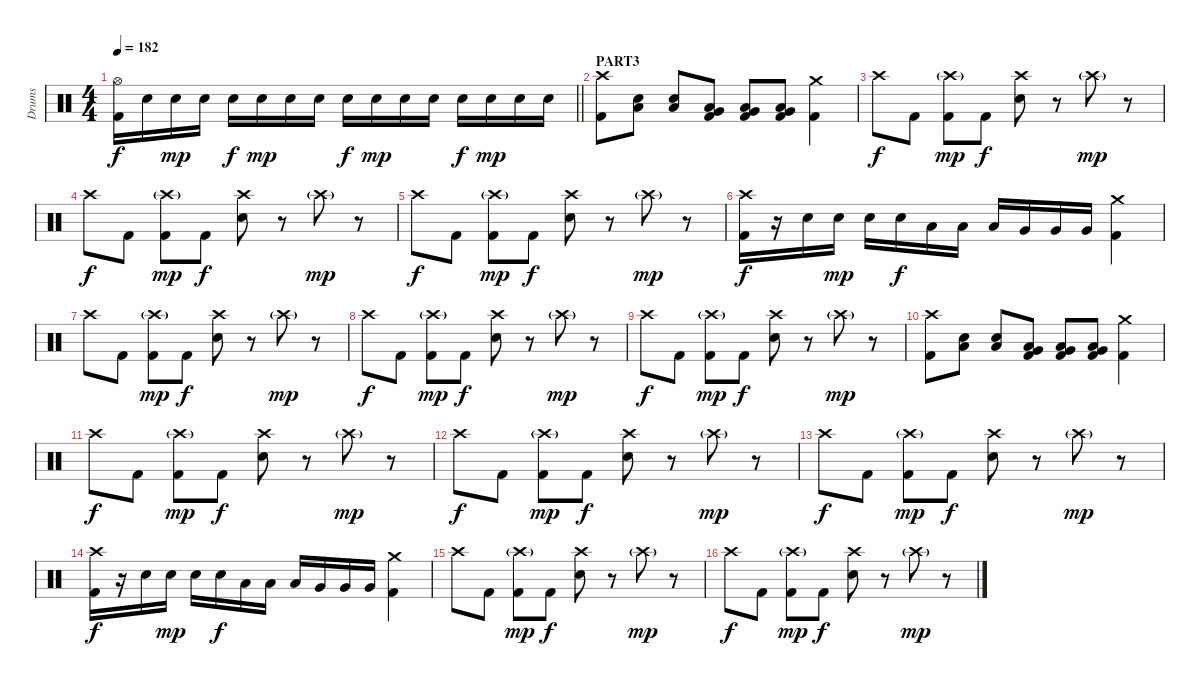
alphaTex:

\track ("Drums" "Drums") {instrument percussion}
\staff {score}
\articulation defaults
\ts (4 4)
\tempo 182
\clef neutral
\barLineRight lightlight
\ks c
("Kick (hit) 2" "Hi-Hat (open)").16{dy f} "Electric Snare (hit)".16 "Electric Snare (hit)".16{dy mp} "Electric Snare (hit)".16 "Electric Snare (hit)".16{dy f} "Electric Snare (hit)".16{dy mp} "Electric Snare (hit)".16 "Electric Snare (hit)".16 "Electric Snare (hit)".16{dy f} "Electric Snare (hit)".16{dy mp} "Electric Snare (hit)".16 "Electric Snare (hit)".16 "Electric Snare (hit)".16{dy f} "Electric Snare (hit)".16{dy mp} "Electric Snare (hit)".16 "Electric Snare (hit)".16 |
\section ("" "PART3")
("Kick (hit) 2" "Crash high (hit)").8 ("Electric Snare (hit)" "Low Floor Tom (hit)").8 ("Electric Snare (hit)" "Low Floor Tom (hit)").8 ("Kick (hit) 2" "Low Floor Tom (hit)" "Very Low Tom (hit)").8 ("Kick (hit) 2" "Low Floor Tom (hit)" "Very Low Tom (hit)").8 ("Kick (hit) 2" "Low Floor Tom (hit)" "Very Low Tom (hit)").8 ("Kick (hit) 2" "Crash medium (hit)").4 |
"Crash high (hit)".8{dy f} "Kick (hit) 2".8 ("Kick (hit) 2" "Crash high (hit)"{g}).8{dy mp} "Kick (hit) 2".8{dy f} ("Crash high (hit)" "Electric Snare (hit)").8 r.8 "Crash high (hit)"{g}.8{dy mp} r.8 |
"Crash high (hit)".8{dy f} "Kick (hit) 2".8 ("Kick (hit) 2" "Crash high (hit)"{g}).8{dy mp} "Kick (hit) 2".8{dy f} ("Crash high (hit)" "Electric Snare (hit)").8 r.8 "Crash high (hit)"{g}.8{dy mp} r.8 |
"Crash high (hit)".8{dy f} "Kick (hit) 2".8 ("Kick (hit) 2" "Crash high (hit)"{g}).8{dy mp} "Kick (hit) 2".8{dy f} ("Crash high (hit)" "Electric Snare (hit)").8 r.8 "Crash high (hit)"{g}.8{dy mp} r.8 |
("Kick (hit) 2" "Crash high (hit)").16{dy f} r.16 "Electric Snare (hit)".16 "Electric Snare (hit)".16{dy mp} "Electric Snare (hit)".16 "Electric Snare (hit)".16{dy f} "Low Tom (hit)".16 "Low Tom (hit)".16 "Low Tom (hit)".16 "Very Low Tom (hit)".16 "Very Low Tom (hit)".16 "Very Low Tom (hit)".16 ("Kick (hit) 2" "Crash medium (hit)").4 |
"Crash high (hit)".8 "Kick (hit) 2".8 ("Kick (hit) 2" "Crash high (hit)"{g}).8{dy mp} "Kick (hit) 2".8{dy f} ("Crash high (hit)" "Electric Snare (hit)").8 r.8 "Crash high (hit)"{g}.8{dy mp} r.8 |
"Crash high (hit)".8{dy f} "Kick (hit) 2".8 ("Kick (hit) 2" "Crash high (hit)"{g}).8{dy mp} "Kick (hit) 2".8{dy f} ("Crash high (hit)" "Electric Snare (hit)").8 r.8 "Crash high (hit)"{g}.8{dy mp} r.8 |
"Crash high (hit)".8{dy f} "Kick (hit) 2".8 ("Kick (hit) 2" "Crash high (hit)"{g}).8{dy mp} "Kick (hit) 2".8{dy f} ("Crash high (hit)" "Electric Snare (hit)").8 r.8 "Crash high (hit)"{g}.8{dy mp} r.8 |
("Kick (hit) 2" "Crash high (hit)").8 ("Electric Snare (hit)" "Low Floor Tom (hit)").8 ("Electric Snare (hit)" "Low Floor Tom (hit)").8 ("Kick (hit) 2" "Low Floor Tom (hit)" "Very Low Tom (hit)").8 ("Kick (hit) 2" "Low Floor Tom (hit)" "Very Low Tom (hit)").8 ("Kick (hit) 2" "Low Floor Tom (hit)" "Very Low Tom (hit)").8 ("Kick (hit) 2" "Crash medium (hit)").4 |
"Crash high (hit)".8{dy f} "Kick (hit) 2".8 ("Kick (hit) 2" "Crash high (hit)"{g}).8{dy mp} "Kick (hit) 2".8{dy f} ("Crash high (hit)" "Electric Snare (hit)").8 r.8 "Crash high (hit)"{g}.8{dy mp} r.8 |
"Crash high (hit)".8{dy f} "Kick (hit) 2".8 ("Kick (hit) 2" "Crash high (hit)"{g}).8{dy mp} "Kick (hit) 2".8{dy f} ("Crash high (hit)" "Electric Snare (hit)").8 r.8 "Crash high (hit)"{g}.8{dy mp} r.8 |
"Crash high (hit)".8{dy f} "Kick (hit) 2".8 ("Kick (hit) 2" "Crash high (hit)"{g}).8{dy mp} "Kick (hit) 2".8{dy f} ("Crash high (hit)" "Electric Snare (hit)").8 r.8 "Crash high (hit)"{g}.8{dy mp} r.8 |
("Kick (hit) 2" "Crash high (hit)").16{dy f} r.16 "Electric Snare (hit)".16 "Electric Snare (hit)".16{dy mp} "Electric Snare (hit)".16 "Electric Snare (hit)".16{dy f} "Low Tom (hit)".16 "Low Tom (hit)".16 "Low Tom (hit)".16 "Very Low Tom (hit)".16 "Very Low Tom (hit)".16 "Very Low Tom (hit)".16 ("Kick (hit) 2" "Crash medium (hit)").4 |
"Crash high (hit)".8 "Kick (hit) 2".8 ("Kick (hit) 2" "Crash high (hit)"{g}).8{dy mp} "Kick (hit) 2".8{dy f} ("Crash high (hit)" "Electric Snare (hit)").8 r.8 "Crash high (hit)"{g}.8{dy mp} r.8 |
"Crash high (hit)".8{dy f} "Kick (hit) 2".8 ("Kick (hit) 2" "Crash high (hit)"{g}).8{dy mp} "Kick (hit) 2".8{dy f} ("Crash high (hit)" "Electric Snare (hit)").8 r.8 "Crash high (hit)"{g}.8{dy mp} r.8
